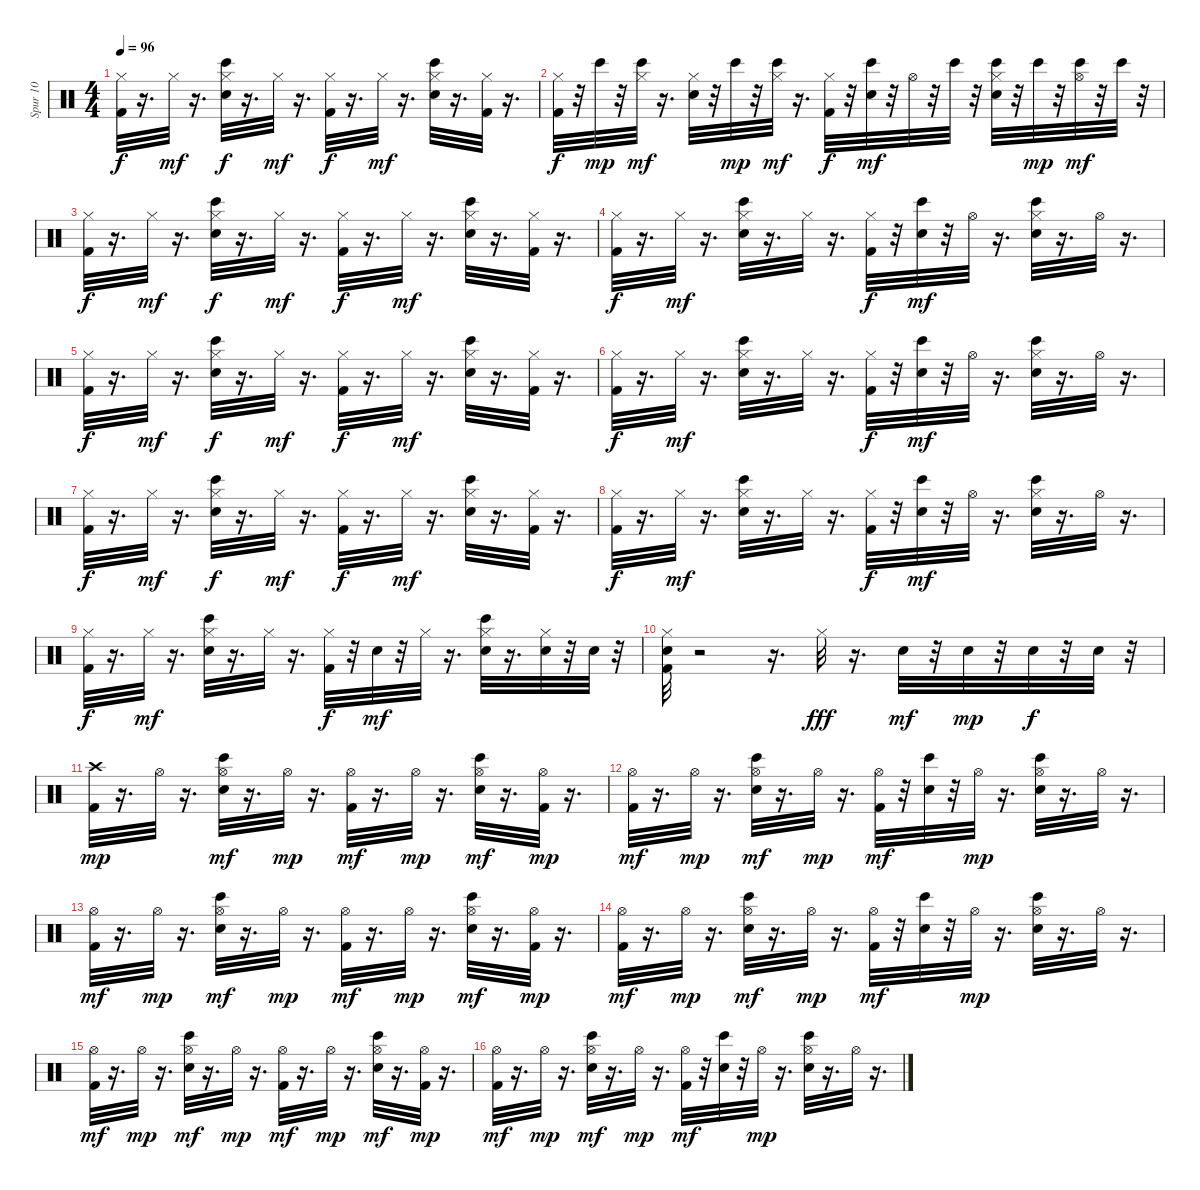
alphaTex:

\track ("Spur 10" "Spur 10") {instrument percussion}
\staff {score}
\articulation defaults
\ts (4 4)
\tempo 96
\clef neutral
\ks c
("Hi-Hat (closed)" "Kick (hit) 2").32{dy f} r.16{d} "Hi-Hat (closed)".32{dy mf} r.16{d} ("Hi-Hat (closed)" "Snare (hit) 2" "Bongo High (hit)").32{dy f} r.16{d} "Hi-Hat (closed)".32{dy mf} r.16{d} ("Hi-Hat (closed)" "Kick (hit) 2").32{dy f} r.16{d} "Hi-Hat (closed)".32{dy mf} r.16{d} ("Hi-Hat (closed)" "Snare (hit) 2" "Bongo High (hit)").32 r.16{d} ("Hi-Hat (closed)" "Kick (hit) 2").32 r.16{d} |
("Hi-Hat (closed)" "Kick (hit) 2").32{dy f} r.32 "Bongo High (hit)".32{dy mp} r.32 ("Hi-Hat (closed)" "Bongo High (hit)").32{dy mf} r.16{d} ("Hi-Hat (closed)" "Snare (hit) 2").32 r.32 "Bongo High (hit)".32{dy mp} r.32 ("Hi-Hat (closed)" "Bongo High (hit)").32{dy mf} r.16{d} ("Hi-Hat (closed)" "Kick (hit) 2").32{dy f} r.32 ("Snare (hit) 2" "Bongo High (hit)").32{dy mf} r.32 "Hi-Hat (open)".32 r.32 "Bongo High (hit)".32 r.32 ("Hi-Hat (closed)" "Snare (hit) 2" "Bongo High (hit)").32 r.32 "Bongo High (hit)".32{dy mp} r.32 ("Hi-Hat (open)" "Bongo High (hit)").32{dy mf} r.32 "Bongo High (hit)".32 r.32 |
("Hi-Hat (closed)" "Kick (hit) 2").32{dy f} r.16{d} "Hi-Hat (closed)".32{dy mf} r.16{d} ("Hi-Hat (closed)" "Snare (hit) 2" "Bongo High (hit)").32{dy f} r.16{d} "Hi-Hat (closed)".32{dy mf} r.16{d} ("Hi-Hat (closed)" "Kick (hit) 2").32{dy f} r.16{d} "Hi-Hat (closed)".32{dy mf} r.16{d} ("Hi-Hat (closed)" "Snare (hit) 2" "Bongo High (hit)").32 r.16{d} ("Hi-Hat (closed)" "Kick (hit) 2").32 r.16{d} |
("Hi-Hat (closed)" "Kick (hit) 2").32{dy f} r.16{d} "Hi-Hat (closed)".32{dy mf} r.16{d} ("Hi-Hat (closed)" "Snare (hit) 2" "Bongo High (hit)").32 r.16{d} "Hi-Hat (closed)".32 r.16{d} ("Hi-Hat (closed)" "Kick (hit) 2").32{dy f} r.32 ("Snare (hit) 2" "Bongo High (hit)").32{dy mf} r.32 "Hi-Hat (open)".32 r.16{d} ("Hi-Hat (closed)" "Snare (hit) 2" "Bongo High (hit)").32 r.16{d} "Hi-Hat (open)".32 r.16{d} |
("Hi-Hat (closed)" "Kick (hit) 2").32{dy f} r.16{d} "Hi-Hat (closed)".32{dy mf} r.16{d} ("Hi-Hat (closed)" "Snare (hit) 2" "Bongo High (hit)").32{dy f} r.16{d} "Hi-Hat (closed)".32{dy mf} r.16{d} ("Hi-Hat (closed)" "Kick (hit) 2").32{dy f} r.16{d} "Hi-Hat (closed)".32{dy mf} r.16{d} ("Hi-Hat (closed)" "Snare (hit) 2" "Bongo High (hit)").32 r.16{d} ("Hi-Hat (closed)" "Kick (hit) 2").32 r.16{d} |
("Hi-Hat (closed)" "Kick (hit) 2").32{dy f} r.16{d} "Hi-Hat (closed)".32{dy mf} r.16{d} ("Hi-Hat (closed)" "Snare (hit) 2" "Bongo High (hit)").32 r.16{d} "Hi-Hat (closed)".32 r.16{d} ("Hi-Hat (closed)" "Kick (hit) 2").32{dy f} r.32 ("Snare (hit) 2" "Bongo High (hit)").32{dy mf} r.32 "Hi-Hat (open)".32 r.16{d} ("Hi-Hat (closed)" "Snare (hit) 2" "Bongo High (hit)").32 r.16{d} "Hi-Hat (open)".32 r.16{d} |
("Hi-Hat (closed)" "Kick (hit) 2").32{dy f} r.16{d} "Hi-Hat (closed)".32{dy mf} r.16{d} ("Hi-Hat (closed)" "Snare (hit) 2" "Bongo High (hit)").32{dy f} r.16{d} "Hi-Hat (closed)".32{dy mf} r.16{d} ("Hi-Hat (closed)" "Kick (hit) 2").32{dy f} r.16{d} "Hi-Hat (closed)".32{dy mf} r.16{d} ("Hi-Hat (closed)" "Snare (hit) 2" "Bongo High (hit)").32 r.16{d} ("Hi-Hat (closed)" "Kick (hit) 2").32 r.16{d} |
("Hi-Hat (closed)" "Kick (hit) 2").32{dy f} r.16{d} "Hi-Hat (closed)".32{dy mf} r.16{d} ("Hi-Hat (closed)" "Snare (hit) 2" "Bongo High (hit)").32 r.16{d} "Hi-Hat (closed)".32 r.16{d} ("Hi-Hat (closed)" "Kick (hit) 2").32{dy f} r.32 ("Snare (hit) 2" "Bongo High (hit)").32{dy mf} r.32 "Hi-Hat (open)".32 r.16{d} ("Hi-Hat (closed)" "Snare (hit) 2" "Bongo High (hit)").32 r.16{d} "Hi-Hat (open)".32 r.16{d} |
("Hi-Hat (closed)" "Kick (hit) 2").32{dy f} r.16{d} "Hi-Hat (closed)".32{dy mf} r.16{d} ("Hi-Hat (closed)" "Snare (hit) 2" "Bongo High (hit)").32 r.16{d} "Hi-Hat (closed)".32 r.16{d} ("Hi-Hat (closed)" "Kick (hit) 2").32{dy f} r.32 "Snare (hit) 2".32{dy mf} r.32 "Hi-Hat (closed)".32 r.16{d} ("Hi-Hat (closed)" "Snare (hit) 2" "Bongo High (hit)").32 r.16{d} ("Hi-Hat (closed)" "Snare (hit) 2").32 r.32 "Snare (hit) 2".32 r.32 |
("Hi-Hat (closed)" "Snare (hit) 2" "Kick (hit) 2").32 r.2 r.16{d} "Hi-Hat (closed)".32{dy fff} r.16{d} "Snare (hit) 2".32{dy mf} r.32 "Snare (hit) 2".32{dy mp} r.32 "Snare (hit) 2".32{dy f} r.32 "Snare (hit) 2".32 r.32 |
("Crash high (hit)" "Kick (hit) 2").32{dy mp} r.16{d} "Hi-Hat (open)".32 r.16{d} ("Hi-Hat (open)" "Snare (hit) 2" "Bongo High (hit)").32{dy mf} r.16{d} "Hi-Hat (open)".32{dy mp} r.16{d} ("Hi-Hat (open)" "Kick (hit) 2").32{dy mf} r.16{d} "Hi-Hat (open)".32{dy mp} r.16{d} ("Hi-Hat (open)" "Snare (hit) 2" "Bongo High (hit)").32{dy mf} r.16{d} ("Hi-Hat (open)" "Kick (hit) 2").32{dy mp} r.16{d} |
("Hi-Hat (open)" "Kick (hit) 2").32{dy mf} r.16{d} "Hi-Hat (open)".32{dy mp} r.16{d} ("Hi-Hat (open)" "Snare (hit) 2" "Bongo High (hit)").32{dy mf} r.16{d} "Hi-Hat (open)".32{dy mp} r.16{d} ("Hi-Hat (open)" "Kick (hit) 2").32{dy mf} r.32 ("Snare (hit) 2" "Bongo High (hit)").32 r.32 "Hi-Hat (open)".32{dy mp} r.16{d} ("Hi-Hat (open)" "Snare (hit) 2" "Bongo High (hit)").32 r.16{d} "Hi-Hat (open)".32 r.16{d} |
("Hi-Hat (open)" "Kick (hit) 2").32{dy mf} r.16{d} "Hi-Hat (open)".32{dy mp} r.16{d} ("Hi-Hat (open)" "Snare (hit) 2" "Bongo High (hit)").32{dy mf} r.16{d} "Hi-Hat (open)".32{dy mp} r.16{d} ("Hi-Hat (open)" "Kick (hit) 2").32{dy mf} r.16{d} "Hi-Hat (open)".32{dy mp} r.16{d} ("Hi-Hat (open)" "Snare (hit) 2" "Bongo High (hit)").32{dy mf} r.16{d} ("Hi-Hat (open)" "Kick (hit) 2").32{dy mp} r.16{d} |
("Hi-Hat (open)" "Kick (hit) 2").32{dy mf} r.16{d} "Hi-Hat (open)".32{dy mp} r.16{d} ("Hi-Hat (open)" "Snare (hit) 2" "Bongo High (hit)").32{dy mf} r.16{d} "Hi-Hat (open)".32{dy mp} r.16{d} ("Hi-Hat (open)" "Kick (hit) 2").32{dy mf} r.32 ("Snare (hit) 2" "Bongo High (hit)").32 r.32 "Hi-Hat (open)".32{dy mp} r.16{d} ("Hi-Hat (open)" "Snare (hit) 2" "Bongo High (hit)").32 r.16{d} "Hi-Hat (open)".32 r.16{d} |
("Hi-Hat (open)" "Kick (hit) 2").32{dy mf} r.16{d} "Hi-Hat (open)".32{dy mp} r.16{d} ("Hi-Hat (open)" "Snare (hit) 2" "Bongo High (hit)").32{dy mf} r.16{d} "Hi-Hat (open)".32{dy mp} r.16{d} ("Hi-Hat (open)" "Kick (hit) 2").32{dy mf} r.16{d} "Hi-Hat (open)".32{dy mp} r.16{d} ("Hi-Hat (open)" "Snare (hit) 2" "Bongo High (hit)").32{dy mf} r.16{d} ("Hi-Hat (open)" "Kick (hit) 2").32{dy mp} r.16{d} |
("Hi-Hat (open)" "Kick (hit) 2").32{dy mf} r.16{d} "Hi-Hat (open)".32{dy mp} r.16{d} ("Hi-Hat (open)" "Snare (hit) 2" "Bongo High (hit)").32{dy mf} r.16{d} "Hi-Hat (open)".32{dy mp} r.16{d} ("Hi-Hat (open)" "Kick (hit) 2").32{dy mf} r.32 ("Snare (hit) 2" "Bongo High (hit)").32 r.32 "Hi-Hat (open)".32{dy mp} r.16{d} ("Hi-Hat (open)" "Snare (hit) 2" "Bongo High (hit)").32 r.16{d} "Hi-Hat (open)".32 r.16{d}
